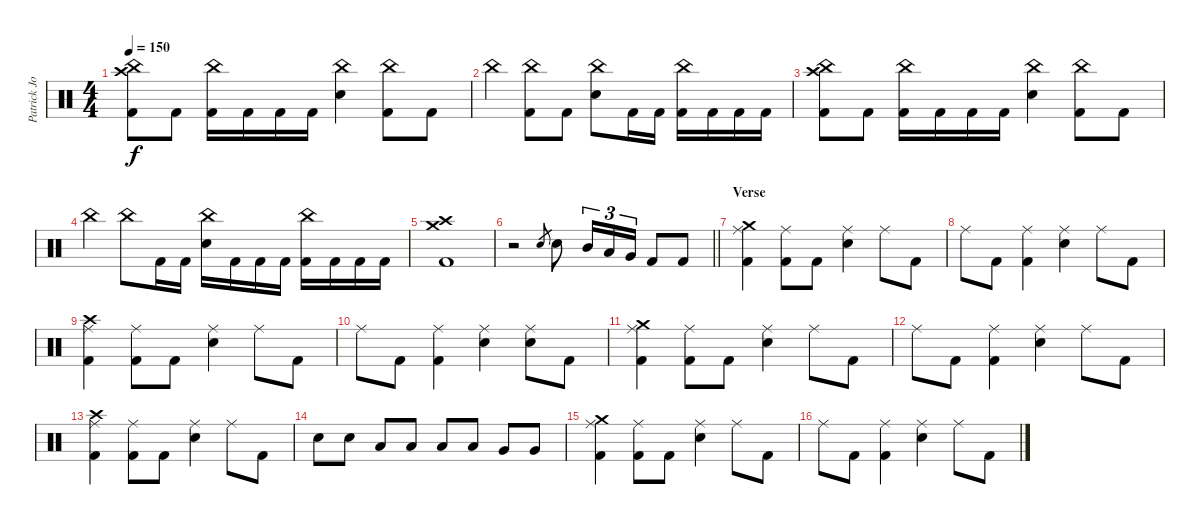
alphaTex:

\track ("Patrick Johansson" "Patrick Jo") {instrument percussion}
\staff {score}
\articulation defaults
\ts (4 4)
\tempo 150
\clef neutral
\ks c
("Crash high (hit)" "China (hit)" "Kick (hit) 2").8{dy f} "Kick (hit) 2".8 ("China (hit)" "Kick (hit) 2").16 "Kick (hit) 2".16 "Kick (hit) 2".16 "Kick (hit) 2".16 ("China (hit)" "Snare (hit) 2").4 ("China (hit)" "Kick (hit) 2").8 "Kick (hit) 2".8 |
"China (hit)".4 ("China (hit)" "Kick (hit) 2").8 "Kick (hit) 2".8 ("China (hit)" "Snare (hit) 2").8 "Kick (hit) 2".16 "Kick (hit) 2".16 ("China (hit)" "Kick (hit) 2").16 "Kick (hit) 2".16 "Kick (hit) 2".16 "Kick (hit) 2".16 |
("Crash high (hit)" "China (hit)" "Kick (hit) 2").8 "Kick (hit) 2".8 ("China (hit)" "Kick (hit) 2").16 "Kick (hit) 2".16 "Kick (hit) 2".16 "Kick (hit) 2".16 ("China (hit)" "Snare (hit) 2").4 ("China (hit)" "Kick (hit) 2").8 "Kick (hit) 2".8 |
"China (hit)".4 "China (hit)".8 "Kick (hit) 2".16 "Kick (hit) 2".16 ("China (hit)" "Snare (hit) 2").16 "Kick (hit) 2".16 "Kick (hit) 2".16 "Kick (hit) 2".16 ("China (hit)" "Kick (hit) 2").16 "Kick (hit) 2".16 "Kick (hit) 2".16 "Kick (hit) 2".16 |
("Crash medium (hit)" "Crash high (hit)" "Kick (hit) 2").1 |
\barLineRight lightlight
r.2 "Snare (hit) 2".8{gr} "Snare (hit) 2".8 "Mid Tom (hit)".16{tu (3 2)} "Low Tom (hit)".16{tu (3 2)} "Very Low Tom (hit)".16{tu (3 2)} "Kick (hit) 2".8 "Kick (hit) 2".8 |
\section ("" "Verse")
("Crash medium (hit)" "Ride (middle)" "Kick (hit) 2").4 ("Ride (middle)" "Kick (hit) 2").8 "Kick (hit) 2".8 ("Ride (middle)" "Snare (hit) 2").4 "Ride (middle)".8 "Kick (hit) 2".8 |
"Ride (middle)".8 "Kick (hit) 2".8 ("Ride (middle)" "Kick (hit) 2").4 ("Ride (middle)" "Snare (hit) 2").4 "Ride (middle)".8 "Kick (hit) 2".8 |
("Crash high (hit)" "Ride (middle)" "Kick (hit) 2").4 ("Ride (middle)" "Kick (hit) 2").8 "Kick (hit) 2".8 ("Ride (middle)" "Snare (hit) 2").4 "Ride (middle)".8 "Kick (hit) 2".8 |
"Ride (middle)".8 "Kick (hit) 2".8 ("Ride (middle)" "Kick (hit) 2").4 ("Ride (middle)" "Snare (hit) 2").4 ("Ride (middle)" "Snare (hit) 2").8 "Kick (hit) 2".8 |
("Crash medium (hit)" "Ride (middle)" "Kick (hit) 2").4 ("Ride (middle)" "Kick (hit) 2").8 "Kick (hit) 2".8 ("Ride (middle)" "Snare (hit) 2").4 "Ride (middle)".8 "Kick (hit) 2".8 |
"Ride (middle)".8 "Kick (hit) 2".8 ("Ride (middle)" "Kick (hit) 2").4 ("Ride (middle)" "Snare (hit) 2").4 "Ride (middle)".8 "Kick (hit) 2".8 |
("Crash high (hit)" "Ride (middle)" "Kick (hit) 2").4 ("Ride (middle)" "Kick (hit) 2").8 "Kick (hit) 2".8 ("Ride (middle)" "Snare (hit) 2").4 "Ride (middle)".8 "Kick (hit) 2".8 |
"Snare (hit) 2".8 "Snare (hit) 2".8 "Low Tom (hit)".8 "Low Tom (hit)".8 "Low Floor Tom (hit)".8 "Low Floor Tom (hit)".8 "Very Low Tom (hit)".8 "Very Low Tom (hit)".8 |
("Crash medium (hit)" "Ride (middle)" "Kick (hit) 2").4 ("Ride (middle)" "Kick (hit) 2").8 "Kick (hit) 2".8 ("Ride (middle)" "Snare (hit) 2").4 "Ride (middle)".8 "Kick (hit) 2".8 |
"Ride (middle)".8 "Kick (hit) 2".8 ("Ride (middle)" "Kick (hit) 2").4 ("Ride (middle)" "Snare (hit) 2").4 "Ride (middle)".8 "Kick (hit) 2".8
